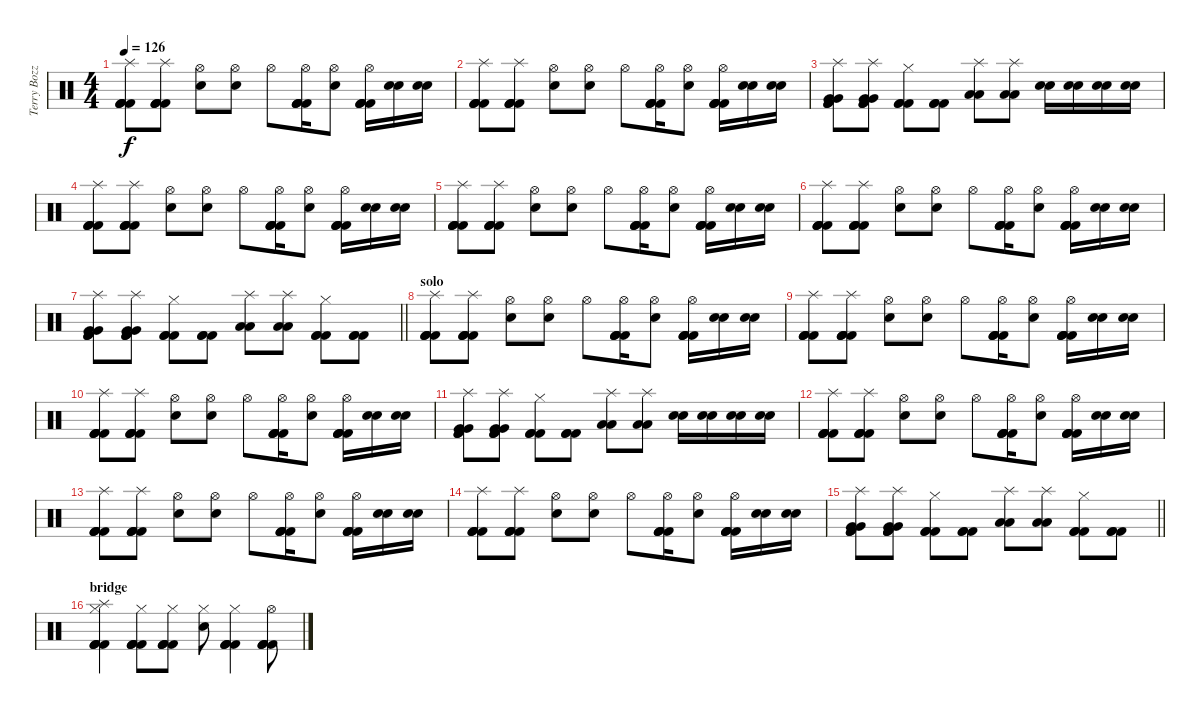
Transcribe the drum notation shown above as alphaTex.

\track ("Terry Bozzio" "Terry Bozz") {instrument percussion}
\staff {score}
\articulation defaults
\ts (4 4)
\tempo 126
\clef neutral
\ks c
("Splash (hit)" "Kick (hit) 2" "Kick (hit) 2" "Kick (hit) 2" "Kick (hit) 2").8{dy f} ("Splash (hit)" "Kick (hit) 2" "Kick (hit) 2" "Kick (hit) 2" "Kick (hit) 2").8 ("Hi-Hat (open)" "Snare (hit) 2").8 ("Hi-Hat (open)" "Snare (hit) 2").8 "Hi-Hat (open)".8 ("Hi-Hat (open)" "Kick (hit) 2" "Kick (hit) 2" "Kick (hit) 2" "Kick (hit) 2").16 ("Hi-Hat (open)" "Snare (hit) 2").8 ("Hi-Hat (open)" "Kick (hit) 2" "Kick (hit) 2" "Kick (hit) 2" "Kick (hit) 2").16 ("Snare (hit) 2" "Snare (hit) 2").16 ("Snare (hit) 2" "Snare (hit) 2").16 |
("Splash (hit)" "Kick (hit) 2" "Kick (hit) 2" "Kick (hit) 2" "Kick (hit) 2").8 ("Splash (hit)" "Kick (hit) 2" "Kick (hit) 2" "Kick (hit) 2" "Kick (hit) 2").8 ("Hi-Hat (open)" "Snare (hit) 2").8 ("Hi-Hat (open)" "Snare (hit) 2").8 "Hi-Hat (open)".8 ("Hi-Hat (open)" "Kick (hit) 2" "Kick (hit) 2" "Kick (hit) 2" "Kick (hit) 2").16 ("Hi-Hat (open)" "Snare (hit) 2").8 ("Hi-Hat (open)" "Kick (hit) 2" "Kick (hit) 2" "Kick (hit) 2" "Kick (hit) 2").16 ("Snare (hit) 2" "Snare (hit) 2").16 ("Snare (hit) 2" "Snare (hit) 2").16 |
("Splash (hit)" "Very Low Tom (hit)" "Very Low Tom (hit)" "Kick (hit) 2" "Kick (hit) 2" "Kick (hit) 2").8 ("Splash (hit)" "Very Low Tom (hit)" "Very Low Tom (hit)" "Kick (hit) 2" "Kick (hit) 2" "Kick (hit) 2").8 ("Hi-Hat (closed)" "Kick (hit) 2" "Kick (hit) 2" "Kick (hit) 2").8 ("Kick (hit) 2" "Kick (hit) 2" "Kick (hit) 2").8 ("Splash (hit)" "Low Floor Tom (hit)" "Low Floor Tom (hit)").8 ("Splash (hit)" "Low Floor Tom (hit)" "Low Floor Tom (hit)").8 ("Snare (hit) 2" "Snare (hit) 2").16 ("Snare (hit) 2" "Snare (hit) 2").16 ("Snare (hit) 2" "Snare (hit) 2").16 ("Snare (hit) 2" "Snare (hit) 2").16 |
("Splash (hit)" "Kick (hit) 2" "Kick (hit) 2" "Kick (hit) 2" "Kick (hit) 2").8 ("Splash (hit)" "Kick (hit) 2" "Kick (hit) 2" "Kick (hit) 2" "Kick (hit) 2").8 ("Hi-Hat (open)" "Snare (hit) 2").8 ("Hi-Hat (open)" "Snare (hit) 2").8 "Hi-Hat (open)".8 ("Hi-Hat (open)" "Kick (hit) 2" "Kick (hit) 2" "Kick (hit) 2" "Kick (hit) 2").16 ("Hi-Hat (open)" "Snare (hit) 2").8 ("Hi-Hat (open)" "Kick (hit) 2" "Kick (hit) 2" "Kick (hit) 2" "Kick (hit) 2").16 ("Snare (hit) 2" "Snare (hit) 2").16 ("Snare (hit) 2" "Snare (hit) 2").16 |
("Splash (hit)" "Kick (hit) 2" "Kick (hit) 2" "Kick (hit) 2" "Kick (hit) 2").8 ("Splash (hit)" "Kick (hit) 2" "Kick (hit) 2" "Kick (hit) 2" "Kick (hit) 2").8 ("Hi-Hat (open)" "Snare (hit) 2").8 ("Hi-Hat (open)" "Snare (hit) 2").8 "Hi-Hat (open)".8 ("Hi-Hat (open)" "Kick (hit) 2" "Kick (hit) 2" "Kick (hit) 2" "Kick (hit) 2").16 ("Hi-Hat (open)" "Snare (hit) 2").8 ("Hi-Hat (open)" "Kick (hit) 2" "Kick (hit) 2" "Kick (hit) 2" "Kick (hit) 2").16 ("Snare (hit) 2" "Snare (hit) 2").16 ("Snare (hit) 2" "Snare (hit) 2").16 |
("Splash (hit)" "Kick (hit) 2" "Kick (hit) 2" "Kick (hit) 2" "Kick (hit) 2").8 ("Splash (hit)" "Kick (hit) 2" "Kick (hit) 2" "Kick (hit) 2" "Kick (hit) 2").8 ("Hi-Hat (open)" "Snare (hit) 2").8 ("Hi-Hat (open)" "Snare (hit) 2").8 "Hi-Hat (open)".8 ("Hi-Hat (open)" "Kick (hit) 2" "Kick (hit) 2" "Kick (hit) 2" "Kick (hit) 2").16 ("Hi-Hat (open)" "Snare (hit) 2").8 ("Hi-Hat (open)" "Kick (hit) 2" "Kick (hit) 2" "Kick (hit) 2" "Kick (hit) 2").16 ("Snare (hit) 2" "Snare (hit) 2").16 ("Snare (hit) 2" "Snare (hit) 2").16 |
\barLineRight lightlight
("Splash (hit)" "Very Low Tom (hit)" "Very Low Tom (hit)" "Kick (hit) 2" "Kick (hit) 2" "Kick (hit) 2").8 ("Splash (hit)" "Very Low Tom (hit)" "Very Low Tom (hit)" "Kick (hit) 2" "Kick (hit) 2" "Kick (hit) 2").8 ("Hi-Hat (closed)" "Kick (hit) 2" "Kick (hit) 2" "Kick (hit) 2").8 ("Kick (hit) 2" "Kick (hit) 2" "Kick (hit) 2").8 ("Splash (hit)" "Low Floor Tom (hit)" "Low Floor Tom (hit)").8 ("Splash (hit)" "Low Floor Tom (hit)" "Low Floor Tom (hit)").8 ("Hi-Hat (closed)" "Kick (hit) 2" "Kick (hit) 2" "Kick (hit) 2").8 ("Kick (hit) 2" "Kick (hit) 2" "Kick (hit) 2").8 |
\section ("" "solo")
("Splash (hit)" "Kick (hit) 2" "Kick (hit) 2" "Kick (hit) 2" "Kick (hit) 2").8 ("Splash (hit)" "Kick (hit) 2" "Kick (hit) 2" "Kick (hit) 2" "Kick (hit) 2").8 ("Hi-Hat (open)" "Snare (hit) 2").8 ("Hi-Hat (open)" "Snare (hit) 2").8 "Hi-Hat (open)".8 ("Hi-Hat (open)" "Kick (hit) 2" "Kick (hit) 2" "Kick (hit) 2" "Kick (hit) 2").16 ("Hi-Hat (open)" "Snare (hit) 2").8 ("Hi-Hat (open)" "Kick (hit) 2" "Kick (hit) 2" "Kick (hit) 2" "Kick (hit) 2").16 ("Snare (hit) 2" "Snare (hit) 2").16 ("Snare (hit) 2" "Snare (hit) 2").16 |
("Splash (hit)" "Kick (hit) 2" "Kick (hit) 2" "Kick (hit) 2" "Kick (hit) 2").8 ("Splash (hit)" "Kick (hit) 2" "Kick (hit) 2" "Kick (hit) 2" "Kick (hit) 2").8 ("Hi-Hat (open)" "Snare (hit) 2").8 ("Hi-Hat (open)" "Snare (hit) 2").8 "Hi-Hat (open)".8 ("Hi-Hat (open)" "Kick (hit) 2" "Kick (hit) 2" "Kick (hit) 2" "Kick (hit) 2").16 ("Hi-Hat (open)" "Snare (hit) 2").8 ("Hi-Hat (open)" "Kick (hit) 2" "Kick (hit) 2" "Kick (hit) 2" "Kick (hit) 2").16 ("Snare (hit) 2" "Snare (hit) 2").16 ("Snare (hit) 2" "Snare (hit) 2").16 |
("Splash (hit)" "Kick (hit) 2" "Kick (hit) 2" "Kick (hit) 2" "Kick (hit) 2").8 ("Splash (hit)" "Kick (hit) 2" "Kick (hit) 2" "Kick (hit) 2" "Kick (hit) 2").8 ("Hi-Hat (open)" "Snare (hit) 2").8 ("Hi-Hat (open)" "Snare (hit) 2").8 "Hi-Hat (open)".8 ("Hi-Hat (open)" "Kick (hit) 2" "Kick (hit) 2" "Kick (hit) 2" "Kick (hit) 2").16 ("Hi-Hat (open)" "Snare (hit) 2").8 ("Hi-Hat (open)" "Kick (hit) 2" "Kick (hit) 2" "Kick (hit) 2" "Kick (hit) 2").16 ("Snare (hit) 2" "Snare (hit) 2").16 ("Snare (hit) 2" "Snare (hit) 2").16 |
("Splash (hit)" "Very Low Tom (hit)" "Very Low Tom (hit)" "Kick (hit) 2" "Kick (hit) 2" "Kick (hit) 2").8 ("Splash (hit)" "Very Low Tom (hit)" "Very Low Tom (hit)" "Kick (hit) 2" "Kick (hit) 2" "Kick (hit) 2").8 ("Hi-Hat (closed)" "Kick (hit) 2" "Kick (hit) 2" "Kick (hit) 2").8 ("Kick (hit) 2" "Kick (hit) 2" "Kick (hit) 2").8 ("Splash (hit)" "Low Floor Tom (hit)" "Low Floor Tom (hit)").8 ("Splash (hit)" "Low Floor Tom (hit)" "Low Floor Tom (hit)").8 ("Snare (hit) 2" "Snare (hit) 2").16 ("Snare (hit) 2" "Snare (hit) 2").16 ("Snare (hit) 2" "Snare (hit) 2").16 ("Snare (hit) 2" "Snare (hit) 2").16 |
("Splash (hit)" "Kick (hit) 2" "Kick (hit) 2" "Kick (hit) 2" "Kick (hit) 2").8 ("Splash (hit)" "Kick (hit) 2" "Kick (hit) 2" "Kick (hit) 2" "Kick (hit) 2").8 ("Hi-Hat (open)" "Snare (hit) 2").8 ("Hi-Hat (open)" "Snare (hit) 2").8 "Hi-Hat (open)".8 ("Hi-Hat (open)" "Kick (hit) 2" "Kick (hit) 2" "Kick (hit) 2" "Kick (hit) 2").16 ("Hi-Hat (open)" "Snare (hit) 2").8 ("Hi-Hat (open)" "Kick (hit) 2" "Kick (hit) 2" "Kick (hit) 2" "Kick (hit) 2").16 ("Snare (hit) 2" "Snare (hit) 2").16 ("Snare (hit) 2" "Snare (hit) 2").16 |
("Splash (hit)" "Kick (hit) 2" "Kick (hit) 2" "Kick (hit) 2" "Kick (hit) 2").8 ("Splash (hit)" "Kick (hit) 2" "Kick (hit) 2" "Kick (hit) 2" "Kick (hit) 2").8 ("Hi-Hat (open)" "Snare (hit) 2").8 ("Hi-Hat (open)" "Snare (hit) 2").8 "Hi-Hat (open)".8 ("Hi-Hat (open)" "Kick (hit) 2" "Kick (hit) 2" "Kick (hit) 2" "Kick (hit) 2").16 ("Hi-Hat (open)" "Snare (hit) 2").8 ("Hi-Hat (open)" "Kick (hit) 2" "Kick (hit) 2" "Kick (hit) 2" "Kick (hit) 2").16 ("Snare (hit) 2" "Snare (hit) 2").16 ("Snare (hit) 2" "Snare (hit) 2").16 |
("Splash (hit)" "Kick (hit) 2" "Kick (hit) 2" "Kick (hit) 2" "Kick (hit) 2").8 ("Splash (hit)" "Kick (hit) 2" "Kick (hit) 2" "Kick (hit) 2" "Kick (hit) 2").8 ("Hi-Hat (open)" "Snare (hit) 2").8 ("Hi-Hat (open)" "Snare (hit) 2").8 "Hi-Hat (open)".8 ("Hi-Hat (open)" "Kick (hit) 2" "Kick (hit) 2" "Kick (hit) 2" "Kick (hit) 2").16 ("Hi-Hat (open)" "Snare (hit) 2").8 ("Hi-Hat (open)" "Kick (hit) 2" "Kick (hit) 2" "Kick (hit) 2" "Kick (hit) 2").16 ("Snare (hit) 2" "Snare (hit) 2").16 ("Snare (hit) 2" "Snare (hit) 2").16 |
\barLineRight lightlight
("Splash (hit)" "Very Low Tom (hit)" "Very Low Tom (hit)" "Kick (hit) 2" "Kick (hit) 2" "Kick (hit) 2").8 ("Splash (hit)" "Very Low Tom (hit)" "Very Low Tom (hit)" "Kick (hit) 2" "Kick (hit) 2" "Kick (hit) 2").8 ("Hi-Hat (closed)" "Kick (hit) 2" "Kick (hit) 2" "Kick (hit) 2").8 ("Kick (hit) 2" "Kick (hit) 2" "Kick (hit) 2").8 ("Splash (hit)" "Low Floor Tom (hit)" "Low Floor Tom (hit)").8 ("Splash (hit)" "Low Floor Tom (hit)" "Low Floor Tom (hit)").8 ("Hi-Hat (closed)" "Kick (hit) 2" "Kick (hit) 2" "Kick (hit) 2").8 ("Kick (hit) 2" "Kick (hit) 2" "Kick (hit) 2").8 |
\section ("" "bridge")
("Splash (hit)" "Hi-Hat (closed)" "Kick (hit) 2" "Kick (hit) 2" "Kick (hit) 2" "Kick (hit) 2").4 ("Hi-Hat (closed)" "Kick (hit) 2" "Kick (hit) 2" "Kick (hit) 2" "Kick (hit) 2").8 ("Hi-Hat (closed)" "Kick (hit) 2" "Kick (hit) 2" "Kick (hit) 2" "Kick (hit) 2").8 ("Hi-Hat (closed)" "Snare (hit) 2").8 ("Hi-Hat (closed)" "Kick (hit) 2" "Kick (hit) 2" "Kick (hit) 2" "Kick (hit) 2").4 ("Hi-Hat (open)" "Kick (hit) 2" "Kick (hit) 2" "Kick (hit) 2" "Kick (hit) 2").8
